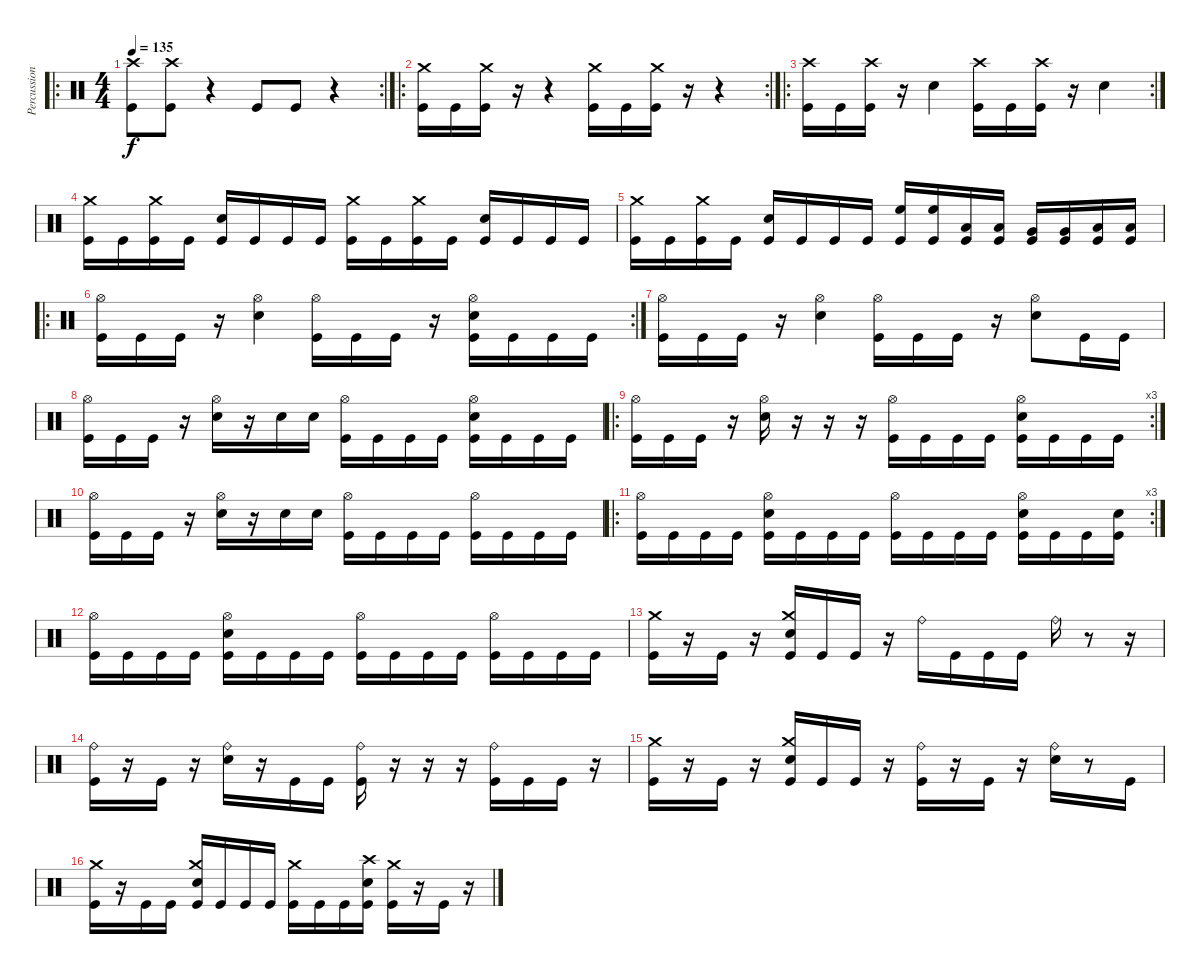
\track ("Percussion" "Percussion") {instrument percussion}
\staff {score}
\articulation defaults
\ro
\rc 2
\ts (4 4)
\tempo 135
\clef neutral
\ks c
("Crash high (hit)" "Kick (hit)").8{dy f} ("Crash high (hit)" "Kick (hit)").8 r.4 "Kick (hit)".8 "Kick (hit)".8 r.4 |
\ro
\rc 2
("Crash medium (hit)" "Kick (hit)").16 "Kick (hit)".16 ("Crash medium (hit)" "Kick (hit)").16 r.16 r.4 ("Crash medium (hit)" "Kick (hit)").16 "Kick (hit)".16 ("Crash medium (hit)" "Kick (hit)").16 r.16 r.4 |
\ro
\rc 2
("Crash high (hit)" "Kick (hit)").16 "Kick (hit)".16 ("Crash high (hit)" "Kick (hit)").16 r.16 "Electric Snare (hit)".4 ("Crash high (hit)" "Kick (hit)").16 "Kick (hit)".16 ("Crash high (hit)" "Kick (hit)").16 r.16 "Electric Snare (hit)".4 |
("Crash medium (hit)" "Kick (hit)").16 "Kick (hit)".16 ("Crash medium (hit)" "Kick (hit)").16 "Kick (hit)".16 ("Electric Snare (hit)" "Kick (hit)").16 "Kick (hit)".16 "Kick (hit)".16 "Kick (hit)".16 ("Crash medium (hit)" "Kick (hit)").16 "Kick (hit)".16 ("Crash medium (hit)" "Kick (hit)").16 "Kick (hit)".16 ("Electric Snare (hit)" "Kick (hit)").16 "Kick (hit)".16 "Kick (hit)".16 "Kick (hit)".16 |
("Crash medium (hit)" "Kick (hit)").16 "Kick (hit)".16 ("Crash medium (hit)" "Kick (hit)").16 "Kick (hit)".16 ("Electric Snare (hit)" "Kick (hit)").16 "Kick (hit)".16 "Kick (hit)".16 "Kick (hit)".16 ("High Floor Tom (hit)" "Kick (hit)").16 ("High Floor Tom (hit)" "Kick (hit)").16 ("Low Tom (hit)" "Kick (hit)").16 ("Low Tom (hit)" "Kick (hit)").16 ("Very Low Tom (hit)" "Kick (hit)").16 ("Very Low Tom (hit)" "Kick (hit)").16 ("Low Floor Tom (hit)" "Kick (hit)").16 ("Low Floor Tom (hit)" "Kick (hit)").16 |
\ro
\rc 2
("Hi-Hat (open)" "Kick (hit)").16 "Kick (hit)".16 "Kick (hit)".16 r.16 ("Hi-Hat (open)" "Electric Snare (hit)").4 ("Hi-Hat (open)" "Kick (hit)").16 "Kick (hit)".16 "Kick (hit)".16 r.16 ("Hi-Hat (open)" "Electric Snare (hit)" "Kick (hit)").16 "Kick (hit)".16 "Kick (hit)".16 "Kick (hit)".16 |
("Hi-Hat (open)" "Kick (hit)").16 "Kick (hit)".16 "Kick (hit)".16 r.16 ("Hi-Hat (open)" "Electric Snare (hit)").4 ("Hi-Hat (open)" "Kick (hit)").16 "Kick (hit)".16 "Kick (hit)".16 r.16 ("Hi-Hat (open)" "Electric Snare (hit)").8 "Kick (hit)".16 "Kick (hit)".16 |
("Hi-Hat (open)" "Kick (hit)").16 "Kick (hit)".16 "Kick (hit)".16 r.16 ("Hi-Hat (open)" "Electric Snare (hit)").16 r.16 "Electric Snare (hit)".16 "Electric Snare (hit)".16 ("Hi-Hat (open)" "Kick (hit)").16 "Kick (hit)".16 "Kick (hit)".16 "Kick (hit)".16 ("Hi-Hat (open)" "Electric Snare (hit)" "Kick (hit)").16 "Kick (hit)".16 "Kick (hit)".16 "Kick (hit)".16 |
\ro
\rc 3
("Hi-Hat (open)" "Kick (hit)").16 "Kick (hit)".16 "Kick (hit)".16 r.16 ("Hi-Hat (open)" "Electric Snare (hit)").16 r.16 r.16 r.16 ("Hi-Hat (open)" "Kick (hit)").16 "Kick (hit)".16 "Kick (hit)".16 "Kick (hit)".16 ("Hi-Hat (open)" "Electric Snare (hit)" "Kick (hit)").16 "Kick (hit)".16 "Kick (hit)".16 "Kick (hit)".16 |
("Hi-Hat (open)" "Kick (hit)").16 "Kick (hit)".16 "Kick (hit)".16 r.16 ("Hi-Hat (open)" "Electric Snare (hit)").16 r.16 "Electric Snare (hit)".16 "Electric Snare (hit)".16 ("Hi-Hat (open)" "Kick (hit)").16 "Kick (hit)".16 "Kick (hit)".16 "Kick (hit)".16 ("Hi-Hat (open)" "Kick (hit)").16 "Kick (hit)".16 "Kick (hit)".16 "Kick (hit)".16 |
\ro
\rc 3
("Hi-Hat (open)" "Kick (hit)").16 "Kick (hit)".16 "Kick (hit)".16 "Kick (hit)".16 ("Hi-Hat (open)" "Electric Snare (hit)" "Kick (hit)").16 "Kick (hit)".16 "Kick (hit)".16 "Kick (hit)".16 ("Hi-Hat (open)" "Kick (hit)").16 "Kick (hit)".16 "Kick (hit)".16 "Kick (hit)".16 ("Hi-Hat (open)" "Electric Snare (hit)" "Kick (hit)").16 "Kick (hit)".16 "Kick (hit)".16 ("Electric Snare (hit)" "Kick (hit)").16 |
("Hi-Hat (open)" "Kick (hit)").16 "Kick (hit)".16 "Kick (hit)".16 "Kick (hit)".16 ("Hi-Hat (open)" "Electric Snare (hit)" "Kick (hit)").16 "Kick (hit)".16 "Kick (hit)".16 "Kick (hit)".16 ("Hi-Hat (open)" "Kick (hit)").16 "Kick (hit)".16 "Kick (hit)".16 "Kick (hit)".16 ("Hi-Hat (open)" "Kick (hit)").16 "Kick (hit)".16 "Kick (hit)".16 "Kick (hit)".16 |
("Crash medium (hit)" "Kick (hit)").16 r.16 "Kick (hit)".16 r.16 ("Crash medium (hit)" "Electric Snare (hit)" "Kick (hit)").16 "Kick (hit)".16 "Kick (hit)".16 r.16 "Ride (bell)".16 "Kick (hit)".16 "Kick (hit)".16 "Kick (hit)".16 "Ride (bell)".16 r.8 r.16 |
("Ride (bell)" "Kick (hit)").16 r.16 "Kick (hit)".16 r.16 ("Ride (bell)" "Electric Snare (hit)").16 r.16 "Kick (hit)".16 "Kick (hit)".16 ("Ride (bell)" "Kick (hit)").16 r.16 r.16 r.16 ("Ride (bell)" "Kick (hit)").16 "Kick (hit)".16 "Kick (hit)".16 r.16 |
("Crash medium (hit)" "Kick (hit)").16 r.16 "Kick (hit)".16 r.16 ("Crash medium (hit)" "Electric Snare (hit)" "Kick (hit)").16 "Kick (hit)".16 "Kick (hit)".16 r.16 ("Kick (hit)" "Ride (bell)").16 r.16 "Kick (hit)".16 r.16 ("Ride (bell)" "Electric Snare (hit)").16 r.8 "Kick (hit)".16 |
("Crash medium (hit)" "Kick (hit)").16 r.16 "Kick (hit)".16 "Kick (hit)".16 ("Crash medium (hit)" "Electric Snare (hit)" "Kick (hit)").16 "Kick (hit)".16 "Kick (hit)".16 "Kick (hit)".16 ("Crash medium (hit)" "Kick (hit)").16 "Kick (hit)".16 "Kick (hit)".16 ("Crash high (hit)" "Electric Snare (hit)" "Kick (hit)").16 ("Crash medium (hit)" "Kick (hit)").16 r.16 "Kick (hit)".16 r.16
